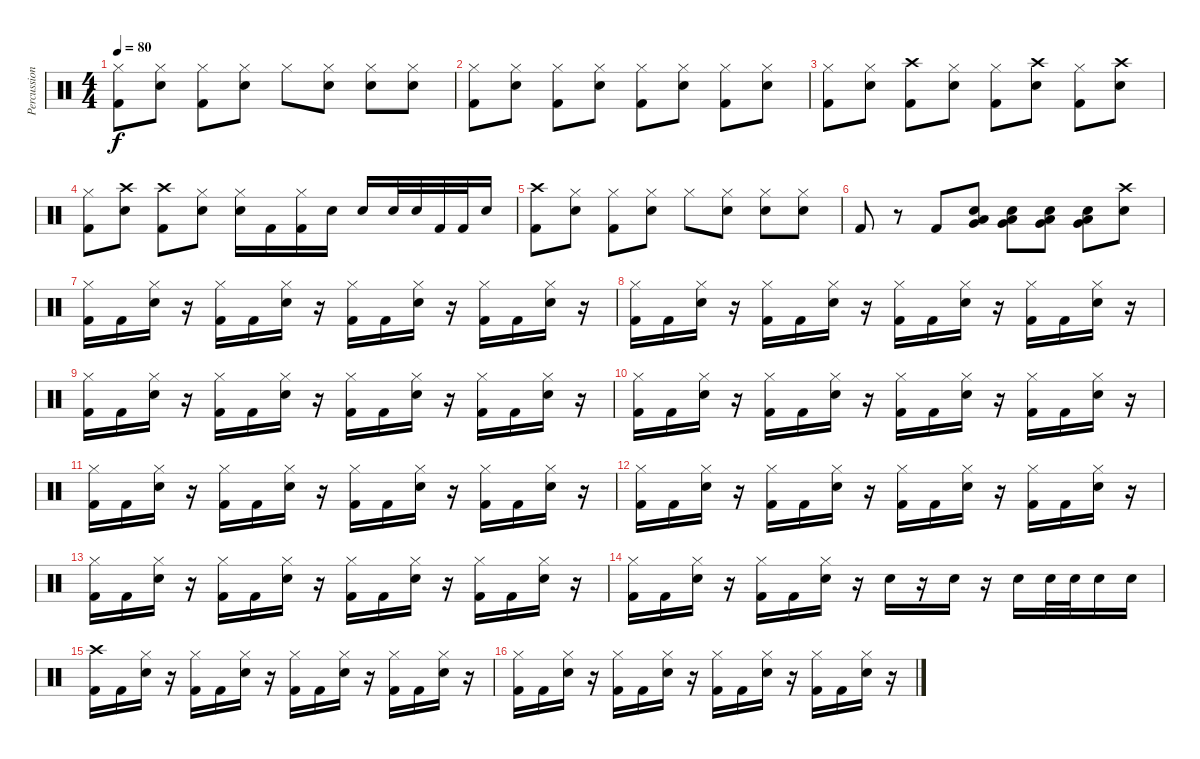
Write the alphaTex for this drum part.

\track ("Percussion" "Percussion") {instrument percussion}
\staff {score}
\articulation defaults
\ts (4 4)
\tempo 80
\clef neutral
\ks c
("Hi-Hat (closed)" "Kick (hit) 2").8{dy f} ("Hi-Hat (closed)" "Electric Snare (hit)").8 ("Hi-Hat (closed)" "Kick (hit) 2").8 ("Hi-Hat (closed)" "Electric Snare (hit)").8 "Hi-Hat (closed)".8 ("Hi-Hat (closed)" "Electric Snare (hit)").8 ("Hi-Hat (closed)" "Electric Snare (hit)").8 ("Hi-Hat (closed)" "Electric Snare (hit)").8 |
("Hi-Hat (closed)" "Kick (hit) 2").8 ("Hi-Hat (closed)" "Electric Snare (hit)").8 ("Hi-Hat (closed)" "Kick (hit) 2").8 ("Hi-Hat (closed)" "Electric Snare (hit)").8 ("Hi-Hat (closed)" "Kick (hit) 2").8 ("Hi-Hat (closed)" "Electric Snare (hit)").8 ("Hi-Hat (closed)" "Kick (hit) 2").8 ("Hi-Hat (closed)" "Electric Snare (hit)").8 |
("Hi-Hat (closed)" "Kick (hit) 2").8 ("Hi-Hat (closed)" "Electric Snare (hit)").8 ("Crash high (hit)" "Kick (hit) 2").8 ("Hi-Hat (closed)" "Electric Snare (hit)").8 ("Hi-Hat (closed)" "Kick (hit) 2").8 ("Crash high (hit)" "Electric Snare (hit)").8 ("Hi-Hat (closed)" "Kick (hit) 2").8 ("Crash high (hit)" "Electric Snare (hit)").8 |
("Hi-Hat (closed)" "Kick (hit) 2").8 ("Crash high (hit)" "Electric Snare (hit)").8 ("Crash high (hit)" "Kick (hit) 2").8 ("Hi-Hat (closed)" "Electric Snare (hit)").8 ("Hi-Hat (closed)" "Electric Snare (hit)").16 "Kick (hit) 2".16 ("Hi-Hat (closed)" "Kick (hit) 2").16 "Electric Snare (hit)".16 "Electric Snare (hit)".16 "Electric Snare (hit)".32 "Electric Snare (hit)".32 "Kick (hit) 2".32 "Kick (hit) 2".32 "Electric Snare (hit)".16 |
("Crash high (hit)" "Kick (hit) 2").8 ("Hi-Hat (closed)" "Electric Snare (hit)").8 ("Hi-Hat (closed)" "Kick (hit) 2").8 ("Hi-Hat (closed)" "Electric Snare (hit)").8 "Hi-Hat (closed)".8 ("Hi-Hat (closed)" "Electric Snare (hit)").8 ("Hi-Hat (closed)" "Electric Snare (hit)").8 ("Hi-Hat (closed)" "Electric Snare (hit)").8 |
"Kick (hit) 2".8 r.8 "Kick (hit) 2".8 ("Very Low Tom (hit)" "Low Tom (hit)" "Electric Snare (hit)").8 ("Very Low Tom (hit)" "Low Tom (hit)" "Electric Snare (hit)").8 ("Very Low Tom (hit)" "Low Tom (hit)" "Electric Snare (hit)").8 ("Very Low Tom (hit)" "Low Tom (hit)" "Electric Snare (hit)").8 ("Crash high (hit)" "Electric Snare (hit)").8 |
("Hi-Hat (closed)" "Kick (hit) 2").16 "Kick (hit) 2".16 ("Hi-Hat (closed)" "Electric Snare (hit)").16 r.16 ("Hi-Hat (closed)" "Kick (hit) 2").16 "Kick (hit) 2".16 ("Hi-Hat (closed)" "Electric Snare (hit)").16 r.16 ("Hi-Hat (closed)" "Kick (hit) 2").16 "Kick (hit) 2".16 ("Hi-Hat (closed)" "Electric Snare (hit)").16 r.16 ("Hi-Hat (closed)" "Kick (hit) 2").16 "Kick (hit) 2".16 ("Hi-Hat (closed)" "Electric Snare (hit)").16 r.16 |
("Hi-Hat (closed)" "Kick (hit) 2").16 "Kick (hit) 2".16 ("Hi-Hat (closed)" "Electric Snare (hit)").16 r.16 ("Hi-Hat (closed)" "Kick (hit) 2").16 "Kick (hit) 2".16 ("Hi-Hat (closed)" "Electric Snare (hit)").16 r.16 ("Hi-Hat (closed)" "Kick (hit) 2").16 "Kick (hit) 2".16 ("Hi-Hat (closed)" "Electric Snare (hit)").16 r.16 ("Hi-Hat (closed)" "Kick (hit) 2").16 "Kick (hit) 2".16 ("Hi-Hat (closed)" "Electric Snare (hit)").16 r.16 |
("Hi-Hat (closed)" "Kick (hit) 2").16 "Kick (hit) 2".16 ("Hi-Hat (closed)" "Electric Snare (hit)").16 r.16 ("Hi-Hat (closed)" "Kick (hit) 2").16 "Kick (hit) 2".16 ("Hi-Hat (closed)" "Electric Snare (hit)").16 r.16 ("Hi-Hat (closed)" "Kick (hit) 2").16 "Kick (hit) 2".16 ("Hi-Hat (closed)" "Electric Snare (hit)").16 r.16 ("Hi-Hat (closed)" "Kick (hit) 2").16 "Kick (hit) 2".16 ("Hi-Hat (closed)" "Electric Snare (hit)").16 r.16 |
("Hi-Hat (closed)" "Kick (hit) 2").16 "Kick (hit) 2".16 ("Hi-Hat (closed)" "Electric Snare (hit)").16 r.16 ("Hi-Hat (closed)" "Kick (hit) 2").16 "Kick (hit) 2".16 ("Hi-Hat (closed)" "Electric Snare (hit)").16 r.16 ("Hi-Hat (closed)" "Kick (hit) 2").16 "Kick (hit) 2".16 ("Hi-Hat (closed)" "Electric Snare (hit)").16 r.16 ("Hi-Hat (closed)" "Kick (hit) 2").16 "Kick (hit) 2".16 ("Hi-Hat (closed)" "Electric Snare (hit)").16 r.16 |
("Hi-Hat (closed)" "Kick (hit) 2").16 "Kick (hit) 2".16 ("Hi-Hat (closed)" "Electric Snare (hit)").16 r.16 ("Hi-Hat (closed)" "Kick (hit) 2").16 "Kick (hit) 2".16 ("Hi-Hat (closed)" "Electric Snare (hit)").16 r.16 ("Hi-Hat (closed)" "Kick (hit) 2").16 "Kick (hit) 2".16 ("Hi-Hat (closed)" "Electric Snare (hit)").16 r.16 ("Hi-Hat (closed)" "Kick (hit) 2").16 "Kick (hit) 2".16 ("Hi-Hat (closed)" "Electric Snare (hit)").16 r.16 |
("Hi-Hat (closed)" "Kick (hit) 2").16 "Kick (hit) 2".16 ("Hi-Hat (closed)" "Electric Snare (hit)").16 r.16 ("Hi-Hat (closed)" "Kick (hit) 2").16 "Kick (hit) 2".16 ("Hi-Hat (closed)" "Electric Snare (hit)").16 r.16 ("Hi-Hat (closed)" "Kick (hit) 2").16 "Kick (hit) 2".16 ("Hi-Hat (closed)" "Electric Snare (hit)").16 r.16 ("Hi-Hat (closed)" "Kick (hit) 2").16 "Kick (hit) 2".16 ("Hi-Hat (closed)" "Electric Snare (hit)").16 r.16 |
("Hi-Hat (closed)" "Kick (hit) 2").16 "Kick (hit) 2".16 ("Hi-Hat (closed)" "Electric Snare (hit)").16 r.16 ("Hi-Hat (closed)" "Kick (hit) 2").16 "Kick (hit) 2".16 ("Hi-Hat (closed)" "Electric Snare (hit)").16 r.16 ("Hi-Hat (closed)" "Kick (hit) 2").16 "Kick (hit) 2".16 ("Hi-Hat (closed)" "Electric Snare (hit)").16 r.16 ("Hi-Hat (closed)" "Kick (hit) 2").16 "Kick (hit) 2".16 ("Hi-Hat (closed)" "Electric Snare (hit)").16 r.16 |
("Hi-Hat (closed)" "Kick (hit) 2").16 "Kick (hit) 2".16 ("Hi-Hat (closed)" "Electric Snare (hit)").16 r.16 ("Hi-Hat (closed)" "Kick (hit) 2").16 "Kick (hit) 2".16 ("Hi-Hat (closed)" "Electric Snare (hit)").16 r.16 "Electric Snare (hit)".16 r.16 "Electric Snare (hit)".16 r.16 "Electric Snare (hit)".16 "Electric Snare (hit)".32 "Electric Snare (hit)".32 "Electric Snare (hit)".16 "Electric Snare (hit)".16 |
("Crash high (hit)" "Kick (hit) 2").16 "Kick (hit) 2".16 ("Hi-Hat (closed)" "Electric Snare (hit)").16 r.16 ("Hi-Hat (closed)" "Kick (hit) 2").16 "Kick (hit) 2".16 ("Hi-Hat (closed)" "Electric Snare (hit)").16 r.16 ("Hi-Hat (closed)" "Kick (hit) 2").16 "Kick (hit) 2".16 ("Hi-Hat (closed)" "Electric Snare (hit)").16 r.16 ("Hi-Hat (closed)" "Kick (hit) 2").16 "Kick (hit) 2".16 ("Hi-Hat (closed)" "Electric Snare (hit)").16 r.16 |
("Hi-Hat (closed)" "Kick (hit) 2").16 "Kick (hit) 2".16 ("Hi-Hat (closed)" "Electric Snare (hit)").16 r.16 ("Hi-Hat (closed)" "Kick (hit) 2").16 "Kick (hit) 2".16 ("Hi-Hat (closed)" "Electric Snare (hit)").16 r.16 ("Hi-Hat (closed)" "Kick (hit) 2").16 "Kick (hit) 2".16 ("Hi-Hat (closed)" "Electric Snare (hit)").16 r.16 ("Hi-Hat (closed)" "Kick (hit) 2").16 "Kick (hit) 2".16 ("Hi-Hat (closed)" "Electric Snare (hit)").16 r.16
